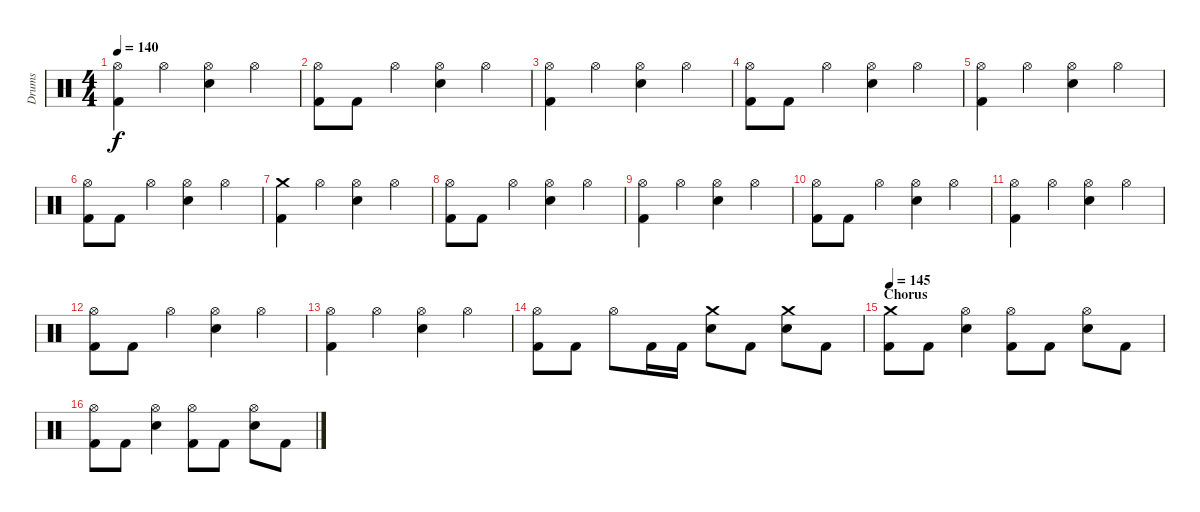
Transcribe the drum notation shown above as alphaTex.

\track ("Drums" "Drums") {instrument percussion}
\staff {score}
\articulation defaults
\ts (4 4)
\tempo 140
\clef neutral
\ks c
("Hi-Hat (open)" "Kick (hit) 2").4{dy f} "Hi-Hat (open)".4 ("Hi-Hat (open)" "Electric Snare (hit)").4 "Hi-Hat (open)".4 |
("Hi-Hat (open)" "Kick (hit) 2").8 "Kick (hit) 2".8 "Hi-Hat (open)".4 ("Hi-Hat (open)" "Electric Snare (hit)").4 "Hi-Hat (open)".4 |
("Hi-Hat (open)" "Kick (hit) 2").4 "Hi-Hat (open)".4 ("Hi-Hat (open)" "Electric Snare (hit)").4 "Hi-Hat (open)".4 |
("Hi-Hat (open)" "Kick (hit) 2").8 "Kick (hit) 2".8 "Hi-Hat (open)".4 ("Hi-Hat (open)" "Electric Snare (hit)").4 "Hi-Hat (open)".4 |
("Hi-Hat (open)" "Kick (hit) 2").4 "Hi-Hat (open)".4 ("Hi-Hat (open)" "Electric Snare (hit)").4 "Hi-Hat (open)".4 |
("Hi-Hat (open)" "Kick (hit) 2").8 "Kick (hit) 2".8 "Hi-Hat (open)".4 ("Hi-Hat (open)" "Electric Snare (hit)").4 "Hi-Hat (open)".4 |
("Crash medium (hit)" "Kick (hit) 2").4 "Hi-Hat (open)".4 ("Hi-Hat (open)" "Electric Snare (hit)").4 "Hi-Hat (open)".4 |
("Hi-Hat (open)" "Kick (hit) 2").8 "Kick (hit) 2".8 "Hi-Hat (open)".4 ("Hi-Hat (open)" "Electric Snare (hit)").4 "Hi-Hat (open)".4 |
("Hi-Hat (open)" "Kick (hit) 2").4 "Hi-Hat (open)".4 ("Hi-Hat (open)" "Electric Snare (hit)").4 "Hi-Hat (open)".4 |
("Hi-Hat (open)" "Kick (hit) 2").8 "Kick (hit) 2".8 "Hi-Hat (open)".4 ("Hi-Hat (open)" "Electric Snare (hit)").4 "Hi-Hat (open)".4 |
("Hi-Hat (open)" "Kick (hit) 2").4 "Hi-Hat (open)".4 ("Hi-Hat (open)" "Electric Snare (hit)").4 "Hi-Hat (open)".4 |
("Hi-Hat (open)" "Kick (hit) 2").8 "Kick (hit) 2".8 "Hi-Hat (open)".4 ("Hi-Hat (open)" "Electric Snare (hit)").4 "Hi-Hat (open)".4 |
("Hi-Hat (open)" "Kick (hit) 2").4 "Hi-Hat (open)".4 ("Hi-Hat (open)" "Electric Snare (hit)").4 "Hi-Hat (open)".4 |
("Hi-Hat (open)" "Kick (hit) 2").8 "Kick (hit) 2".8 "Hi-Hat (open)".8 "Kick (hit) 2".16 "Kick (hit) 2".16 ("Crash medium (hit)" "Electric Snare (hit)").8 "Kick (hit) 2".8 ("Crash medium (hit)" "Electric Snare (hit)").8 "Kick (hit) 2".8 |
\section ("" "Chorus")
\tempo 145
("Crash medium (hit)" "Kick (hit) 2").8 "Kick (hit) 2".8 ("Hi-Hat (open)" "Electric Snare (hit)").4 ("Hi-Hat (open)" "Kick (hit) 2").8 "Kick (hit) 2".8 ("Hi-Hat (open)" "Electric Snare (hit)").8 "Kick (hit) 2".8 |
("Hi-Hat (open)" "Kick (hit) 2").8 "Kick (hit) 2".8 ("Hi-Hat (open)" "Electric Snare (hit)").4 ("Hi-Hat (open)" "Kick (hit) 2").8 "Kick (hit) 2".8 ("Hi-Hat (open)" "Electric Snare (hit)").8 "Kick (hit) 2".8
